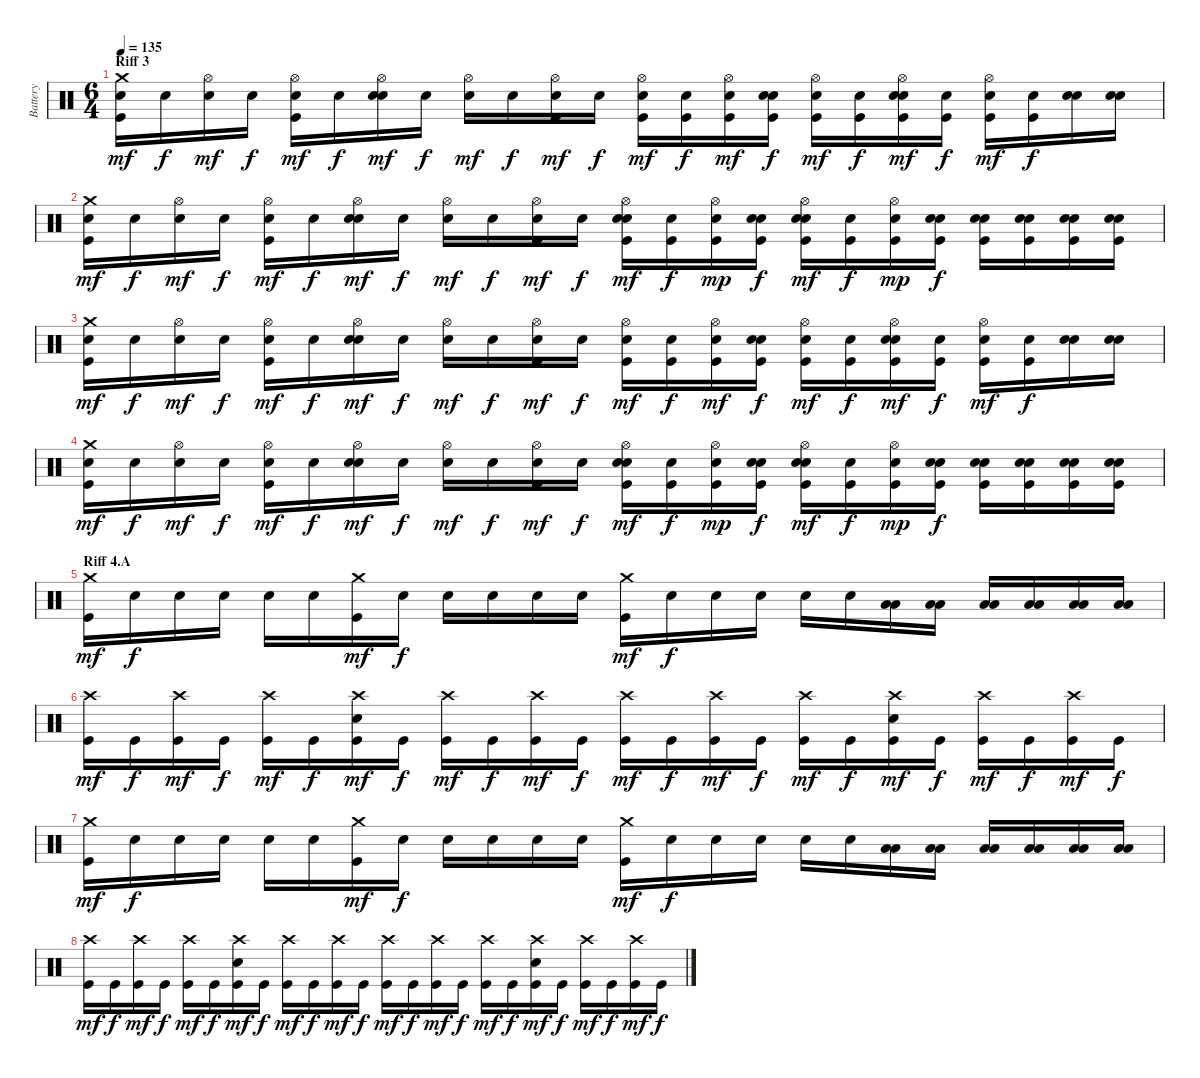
\track ("Battery" "Battery") {instrument percussion}
\staff {score}
\articulation defaults
\ts (6 4)
\section ("" "Riff 3")
\tempo 135
\clef neutral
\ks c
("Snare (hit)"{x} "Crash medium (hit)" "Kick (hit)").16{dy mf} "Snare (hit)"{x}.16{dy f} ("Snare (hit)"{x} "Hi-Hat (open)").16{dy mf} "Snare (hit)"{x}.16{dy f} ("Snare (hit)"{x} "Hi-Hat (open)" "Kick (hit)").16{dy mf} "Snare (hit)"{x}.16{dy f} ("Snare (hit)"{x} "Hi-Hat (open)" "Electric Snare (hit)").16{dy mf} "Snare (hit)"{x}.16{dy f} ("Snare (hit)"{x} "Hi-Hat (open)").16{dy mf} "Snare (hit)"{x}.16{dy f} ("Snare (hit)"{x} "Hi-Hat (open)" "Kick (hit)").16{dy mf} "Snare (hit)"{x}.16{dy f} ("Snare (hit)"{x} "Hi-Hat (open)" "Kick (hit)").16{dy mf} ("Snare (hit)"{x} "Kick (hit)").16{dy f} ("Snare (hit)"{x} "Hi-Hat (open)" "Kick (hit)").16{dy mf} ("Snare (hit)"{x} "Electric Snare (hit)" "Kick (hit)").16{dy f} ("Snare (hit)"{x} "Hi-Hat (open)" "Kick (hit)").16{dy mf} ("Snare (hit)"{x} "Kick (hit)").16{dy f} ("Snare (hit)"{x} "Hi-Hat (open)" "Electric Snare (hit)" "Kick (hit)").16{dy mf} ("Snare (hit)"{x} "Kick (hit)").16{dy f} ("Snare (hit)"{x} "Hi-Hat (open)" "Kick (hit)").16{dy mf} ("Snare (hit)"{x} "Kick (hit)").16{dy f} ("Snare (hit)"{x} "Electric Snare (hit)").16 ("Snare (hit)"{x} "Electric Snare (hit)").16 |
("Snare (hit)"{x} "Crash medium (hit)" "Kick (hit)").16{dy mf} "Snare (hit)"{x}.16{dy f} ("Snare (hit)"{x} "Hi-Hat (open)").16{dy mf} "Snare (hit)"{x}.16{dy f} ("Snare (hit)"{x} "Hi-Hat (open)" "Kick (hit)").16{dy mf} "Snare (hit)"{x}.16{dy f} ("Snare (hit)"{x} "Hi-Hat (open)" "Electric Snare (hit)").16{dy mf} "Snare (hit)"{x}.16{dy f} ("Snare (hit)"{x} "Hi-Hat (open)").16{dy mf} "Snare (hit)"{x}.16{dy f} ("Snare (hit)"{x} "Hi-Hat (open)" "Kick (hit)").16{dy mf} "Snare (hit)"{x}.16{dy f} ("Snare (hit)"{x} "Hi-Hat (open)" "Electric Snare (hit)" "Kick (hit)").16{dy mf} ("Snare (hit)"{x} "Kick (hit)").16{dy f} ("Snare (hit)"{x} "Hi-Hat (open)" "Kick (hit)").16{dy mp} ("Snare (hit)"{x} "Electric Snare (hit)" "Kick (hit)").16{dy f} ("Snare (hit)"{x} "Hi-Hat (open)" "Electric Snare (hit)" "Kick (hit)").16{dy mf} ("Snare (hit)"{x} "Kick (hit)").16{dy f} ("Snare (hit)"{x} "Hi-Hat (open)" "Kick (hit)").16{dy mp} ("Snare (hit)"{x} "Electric Snare (hit)" "Kick (hit)").16{dy f} ("Snare (hit)"{x} "Electric Snare (hit)" "Kick (hit)").16 ("Snare (hit)"{x} "Electric Snare (hit)" "Kick (hit)").16 ("Snare (hit)"{x} "Electric Snare (hit)" "Kick (hit)").16 ("Snare (hit)"{x} "Electric Snare (hit)" "Kick (hit)").16 |
("Snare (hit)"{x} "Crash medium (hit)" "Kick (hit)").16{dy mf} "Snare (hit)"{x}.16{dy f} ("Snare (hit)"{x} "Hi-Hat (open)").16{dy mf} "Snare (hit)"{x}.16{dy f} ("Snare (hit)"{x} "Hi-Hat (open)" "Kick (hit)").16{dy mf} "Snare (hit)"{x}.16{dy f} ("Snare (hit)"{x} "Hi-Hat (open)" "Electric Snare (hit)").16{dy mf} "Snare (hit)"{x}.16{dy f} ("Snare (hit)"{x} "Hi-Hat (open)").16{dy mf} "Snare (hit)"{x}.16{dy f} ("Snare (hit)"{x} "Hi-Hat (open)" "Kick (hit)").16{dy mf} "Snare (hit)"{x}.16{dy f} ("Snare (hit)"{x} "Hi-Hat (open)" "Kick (hit)").16{dy mf} ("Snare (hit)"{x} "Kick (hit)").16{dy f} ("Snare (hit)"{x} "Hi-Hat (open)" "Kick (hit)").16{dy mf} ("Snare (hit)"{x} "Electric Snare (hit)" "Kick (hit)").16{dy f} ("Snare (hit)"{x} "Hi-Hat (open)" "Kick (hit)").16{dy mf} ("Snare (hit)"{x} "Kick (hit)").16{dy f} ("Snare (hit)"{x} "Hi-Hat (open)" "Electric Snare (hit)" "Kick (hit)").16{dy mf} ("Snare (hit)"{x} "Kick (hit)").16{dy f} ("Snare (hit)"{x} "Hi-Hat (open)" "Kick (hit)").16{dy mf} ("Snare (hit)"{x} "Kick (hit)").16{dy f} ("Snare (hit)"{x} "Electric Snare (hit)").16 ("Snare (hit)"{x} "Electric Snare (hit)").16 |
("Snare (hit)"{x} "Crash medium (hit)" "Kick (hit)").16{dy mf} "Snare (hit)"{x}.16{dy f} ("Snare (hit)"{x} "Hi-Hat (open)").16{dy mf} "Snare (hit)"{x}.16{dy f} ("Snare (hit)"{x} "Hi-Hat (open)" "Kick (hit)").16{dy mf} "Snare (hit)"{x}.16{dy f} ("Snare (hit)"{x} "Hi-Hat (open)" "Electric Snare (hit)").16{dy mf} "Snare (hit)"{x}.16{dy f} ("Snare (hit)"{x} "Hi-Hat (open)").16{dy mf} "Snare (hit)"{x}.16{dy f} ("Snare (hit)"{x} "Hi-Hat (open)" "Kick (hit)").16{dy mf} "Snare (hit)"{x}.16{dy f} ("Snare (hit)"{x} "Hi-Hat (open)" "Electric Snare (hit)" "Kick (hit)").16{dy mf} ("Snare (hit)"{x} "Kick (hit)").16{dy f} ("Snare (hit)"{x} "Hi-Hat (open)" "Kick (hit)").16{dy mp} ("Snare (hit)"{x} "Electric Snare (hit)" "Kick (hit)").16{dy f} ("Snare (hit)"{x} "Hi-Hat (open)" "Electric Snare (hit)" "Kick (hit)").16{dy mf} ("Snare (hit)"{x} "Kick (hit)").16{dy f} ("Snare (hit)"{x} "Hi-Hat (open)" "Kick (hit)").16{dy mp} ("Snare (hit)"{x} "Electric Snare (hit)" "Kick (hit)").16{dy f} ("Snare (hit)"{x} "Electric Snare (hit)" "Kick (hit)").16 ("Snare (hit)"{x} "Electric Snare (hit)" "Kick (hit)").16 ("Snare (hit)"{x} "Electric Snare (hit)" "Kick (hit)").16 ("Snare (hit)"{x} "Electric Snare (hit)" "Kick (hit)").16 |
\section ("" "Riff 4.A")
("Crash medium (hit)" "Kick (hit)").16{dy mf} "Electric Snare (hit)".16{dy f} "Electric Snare (hit)".16 "Electric Snare (hit)".16 "Electric Snare (hit)".16 "Electric Snare (hit)".16 ("Crash medium (hit)" "Kick (hit)").16{dy mf} "Electric Snare (hit)".16{dy f} "Electric Snare (hit)".16 "Electric Snare (hit)".16 "Electric Snare (hit)".16 "Electric Snare (hit)".16 ("Crash medium (hit)" "Kick (hit)").16{dy mf} "Electric Snare (hit)".16{dy f} "Electric Snare (hit)".16 "Electric Snare (hit)".16 "Electric Snare (hit)".16 "Electric Snare (hit)".16 ("Low Tom (hit)" "Low Tom (hit)").16 ("Low Tom (hit)" "Low Tom (hit)").16 ("Low Tom (hit)" "Low Tom (hit)").16 ("Low Tom (hit)" "Low Tom (hit)").16 ("Low Tom (hit)" "Low Tom (hit)").16 ("Low Tom (hit)" "Low Tom (hit)").16 |
("Crash high (hit)" "Kick (hit)").16{dy mf} "Kick (hit)".16{dy f} ("Crash high (hit)" "Kick (hit)").16{dy mf} "Kick (hit)".16{dy f} ("Crash high (hit)" "Kick (hit)").16{dy mf} "Kick (hit)".16{dy f} ("Crash high (hit)" "Electric Snare (hit)" "Kick (hit)").16{dy mf} "Kick (hit)".16{dy f} ("Crash high (hit)" "Kick (hit)").16{dy mf} "Kick (hit)".16{dy f} ("Crash high (hit)" "Kick (hit)").16{dy mf} "Kick (hit)".16{dy f} ("Crash high (hit)" "Kick (hit)").16{dy mf} "Kick (hit)".16{dy f} ("Crash high (hit)" "Kick (hit)").16{dy mf} "Kick (hit)".16{dy f} ("Crash high (hit)" "Kick (hit)").16{dy mf} "Kick (hit)".16{dy f} ("Crash high (hit)" "Electric Snare (hit)" "Kick (hit)").16{dy mf} "Kick (hit)".16{dy f} ("Crash high (hit)" "Kick (hit)").16{dy mf} "Kick (hit)".16{dy f} ("Crash high (hit)" "Kick (hit)").16{dy mf} "Kick (hit)".16{dy f} |
("Crash medium (hit)" "Kick (hit)").16{dy mf} "Electric Snare (hit)".16{dy f} "Electric Snare (hit)".16 "Electric Snare (hit)".16 "Electric Snare (hit)".16 "Electric Snare (hit)".16 ("Crash medium (hit)" "Kick (hit)").16{dy mf} "Electric Snare (hit)".16{dy f} "Electric Snare (hit)".16 "Electric Snare (hit)".16 "Electric Snare (hit)".16 "Electric Snare (hit)".16 ("Crash medium (hit)" "Kick (hit)").16{dy mf} "Electric Snare (hit)".16{dy f} "Electric Snare (hit)".16 "Electric Snare (hit)".16 "Electric Snare (hit)".16 "Electric Snare (hit)".16 ("Low Tom (hit)" "Low Tom (hit)").16 ("Low Tom (hit)" "Low Tom (hit)").16 ("Low Tom (hit)" "Low Tom (hit)").16 ("Low Tom (hit)" "Low Tom (hit)").16 ("Low Tom (hit)" "Low Tom (hit)").16 ("Low Tom (hit)" "Low Tom (hit)").16 |
("Crash high (hit)" "Kick (hit)").16{dy mf} "Kick (hit)".16{dy f} ("Crash high (hit)" "Kick (hit)").16{dy mf} "Kick (hit)".16{dy f} ("Crash high (hit)" "Kick (hit)").16{dy mf} "Kick (hit)".16{dy f} ("Crash high (hit)" "Electric Snare (hit)" "Kick (hit)").16{dy mf} "Kick (hit)".16{dy f} ("Crash high (hit)" "Kick (hit)").16{dy mf} "Kick (hit)".16{dy f} ("Crash high (hit)" "Kick (hit)").16{dy mf} "Kick (hit)".16{dy f} ("Crash high (hit)" "Kick (hit)").16{dy mf} "Kick (hit)".16{dy f} ("Crash high (hit)" "Kick (hit)").16{dy mf} "Kick (hit)".16{dy f} ("Crash high (hit)" "Kick (hit)").16{dy mf} "Kick (hit)".16{dy f} ("Crash high (hit)" "Electric Snare (hit)" "Kick (hit)").16{dy mf} "Kick (hit)".16{dy f} ("Crash high (hit)" "Kick (hit)").16{dy mf} "Kick (hit)".16{dy f} ("Crash high (hit)" "Kick (hit)").16{dy mf} "Kick (hit)".16{dy f}
